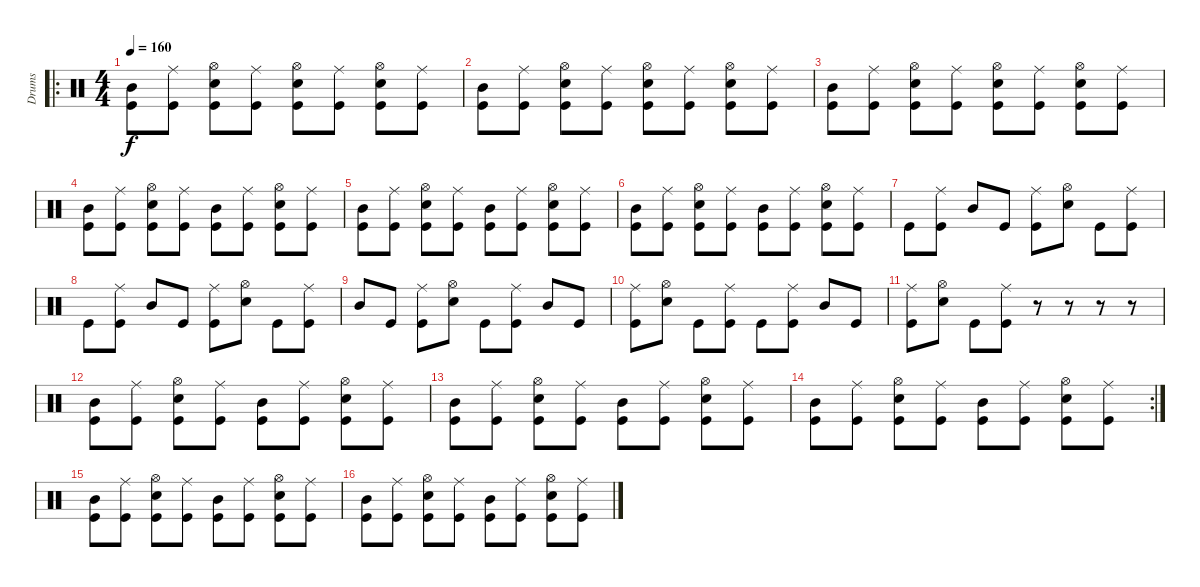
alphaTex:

\track ("Drums" "Drums") {instrument percussion}
\staff {score}
\articulation defaults
\ro
\ts (4 4)
\tempo 160
\clef neutral
\ks c
("Mid Tom (hit)" "Kick (hit)").8{dy f} ("Kick (hit)" "Ride (middle)").8 ("Hi-Hat (open)" "Snare (hit) 2" "Kick (hit)").8 ("Kick (hit)" "Ride (middle)").8 ("Hi-Hat (open)" "Snare (hit) 2" "Kick (hit)").8 ("Kick (hit)" "Ride (middle)").8 ("Hi-Hat (open)" "Snare (hit) 2" "Kick (hit)").8 ("Kick (hit)" "Ride (middle)").8 |
("Mid Tom (hit)" "Kick (hit)").8 ("Kick (hit)" "Ride (middle)").8 ("Hi-Hat (open)" "Snare (hit) 2" "Kick (hit)").8 ("Kick (hit)" "Ride (middle)").8 ("Hi-Hat (open)" "Snare (hit) 2" "Kick (hit)").8 ("Kick (hit)" "Ride (middle)").8 ("Hi-Hat (open)" "Snare (hit) 2" "Kick (hit)").8 ("Kick (hit)" "Ride (middle)").8 |
("Mid Tom (hit)" "Kick (hit)").8 ("Kick (hit)" "Ride (middle)").8 ("Hi-Hat (open)" "Snare (hit) 2" "Kick (hit)").8 ("Kick (hit)" "Ride (middle)").8 ("Hi-Hat (open)" "Snare (hit) 2" "Kick (hit)").8 ("Kick (hit)" "Ride (middle)").8 ("Hi-Hat (open)" "Snare (hit) 2" "Kick (hit)").8 ("Kick (hit)" "Ride (middle)").8 |
("Mid Tom (hit)" "Kick (hit)").8 ("Kick (hit)" "Ride (middle)").8 ("Hi-Hat (open)" "Snare (hit) 2" "Kick (hit)").8 ("Kick (hit)" "Ride (middle)").8 ("Mid Tom (hit)" "Kick (hit)").8 ("Kick (hit)" "Ride (middle)").8 ("Hi-Hat (open)" "Snare (hit) 2" "Kick (hit)").8 ("Kick (hit)" "Ride (middle)").8 |
("Mid Tom (hit)" "Kick (hit)").8 ("Kick (hit)" "Ride (middle)").8 ("Hi-Hat (open)" "Snare (hit) 2" "Kick (hit)").8 ("Kick (hit)" "Ride (middle)").8 ("Mid Tom (hit)" "Kick (hit)").8 ("Kick (hit)" "Ride (middle)").8 ("Hi-Hat (open)" "Snare (hit) 2" "Kick (hit)").8 ("Kick (hit)" "Ride (middle)").8 |
("Mid Tom (hit)" "Kick (hit)").8 ("Kick (hit)" "Ride (middle)").8 ("Hi-Hat (open)" "Snare (hit) 2" "Kick (hit)").8 ("Kick (hit)" "Ride (middle)").8 ("Mid Tom (hit)" "Kick (hit)").8 ("Kick (hit)" "Ride (middle)").8 ("Hi-Hat (open)" "Snare (hit) 2" "Kick (hit)").8 ("Kick (hit)" "Ride (middle)").8 |
"Kick (hit)".8 ("Kick (hit)" "Ride (middle)").8 "Mid Tom (hit)".8 "Kick (hit)".8 ("Kick (hit)" "Ride (middle)").8 ("Hi-Hat (open)" "Snare (hit) 2").8 "Kick (hit)".8 ("Kick (hit)" "Ride (middle)").8 |
"Kick (hit)".8 ("Kick (hit)" "Ride (middle)").8 "Mid Tom (hit)".8 "Kick (hit)".8 ("Kick (hit)" "Ride (middle)").8 ("Hi-Hat (open)" "Snare (hit) 2").8 "Kick (hit)".8 ("Kick (hit)" "Ride (middle)").8 |
"Mid Tom (hit)".8 "Kick (hit)".8 ("Kick (hit)" "Ride (middle)").8 ("Hi-Hat (open)" "Snare (hit) 2").8 "Kick (hit)".8 ("Kick (hit)" "Ride (middle)").8 "Mid Tom (hit)".8 "Kick (hit)".8 |
("Kick (hit)" "Ride (middle)").8 ("Hi-Hat (open)" "Snare (hit) 2").8 "Kick (hit)".8 ("Kick (hit)" "Ride (middle)").8 "Kick (hit)".8 ("Kick (hit)" "Ride (middle)").8 "Mid Tom (hit)".8 "Kick (hit)".8 |
("Kick (hit)" "Ride (middle)").8 ("Hi-Hat (open)" "Snare (hit) 2").8 "Kick (hit)".8 ("Kick (hit)" "Ride (middle)").8 r.8 r.8 r.8 r.8 |
("Mid Tom (hit)" "Kick (hit)").8 ("Kick (hit)" "Ride (middle)").8 ("Hi-Hat (open)" "Snare (hit) 2" "Kick (hit)").8 ("Kick (hit)" "Ride (middle)").8 ("Mid Tom (hit)" "Kick (hit)").8 ("Kick (hit)" "Ride (middle)").8 ("Hi-Hat (open)" "Snare (hit) 2" "Kick (hit)").8 ("Kick (hit)" "Ride (middle)").8 |
("Mid Tom (hit)" "Kick (hit)").8 ("Kick (hit)" "Ride (middle)").8 ("Hi-Hat (open)" "Snare (hit) 2" "Kick (hit)").8 ("Kick (hit)" "Ride (middle)").8 ("Mid Tom (hit)" "Kick (hit)").8 ("Kick (hit)" "Ride (middle)").8 ("Hi-Hat (open)" "Snare (hit) 2" "Kick (hit)").8 ("Kick (hit)" "Ride (middle)").8 |
\rc 2
("Mid Tom (hit)" "Kick (hit)").8 ("Kick (hit)" "Ride (middle)").8 ("Hi-Hat (open)" "Snare (hit) 2" "Kick (hit)").8 ("Kick (hit)" "Ride (middle)").8 ("Mid Tom (hit)" "Kick (hit)").8 ("Kick (hit)" "Ride (middle)").8 ("Hi-Hat (open)" "Snare (hit) 2" "Kick (hit)").8 ("Kick (hit)" "Ride (middle)").8 |
("Mid Tom (hit)" "Kick (hit)").8 ("Kick (hit)" "Ride (middle)").8 ("Hi-Hat (open)" "Snare (hit) 2" "Kick (hit)").8 ("Kick (hit)" "Ride (middle)").8 ("Mid Tom (hit)" "Kick (hit)").8 ("Kick (hit)" "Ride (middle)").8 ("Hi-Hat (open)" "Snare (hit) 2" "Kick (hit)").8 ("Kick (hit)" "Ride (middle)").8 |
("Mid Tom (hit)" "Kick (hit)").8 ("Kick (hit)" "Ride (middle)").8 ("Hi-Hat (open)" "Snare (hit) 2" "Kick (hit)").8 ("Kick (hit)" "Ride (middle)").8 ("Mid Tom (hit)" "Kick (hit)").8 ("Kick (hit)" "Ride (middle)").8 ("Hi-Hat (open)" "Snare (hit) 2" "Kick (hit)").8 ("Kick (hit)" "Ride (middle)").8
